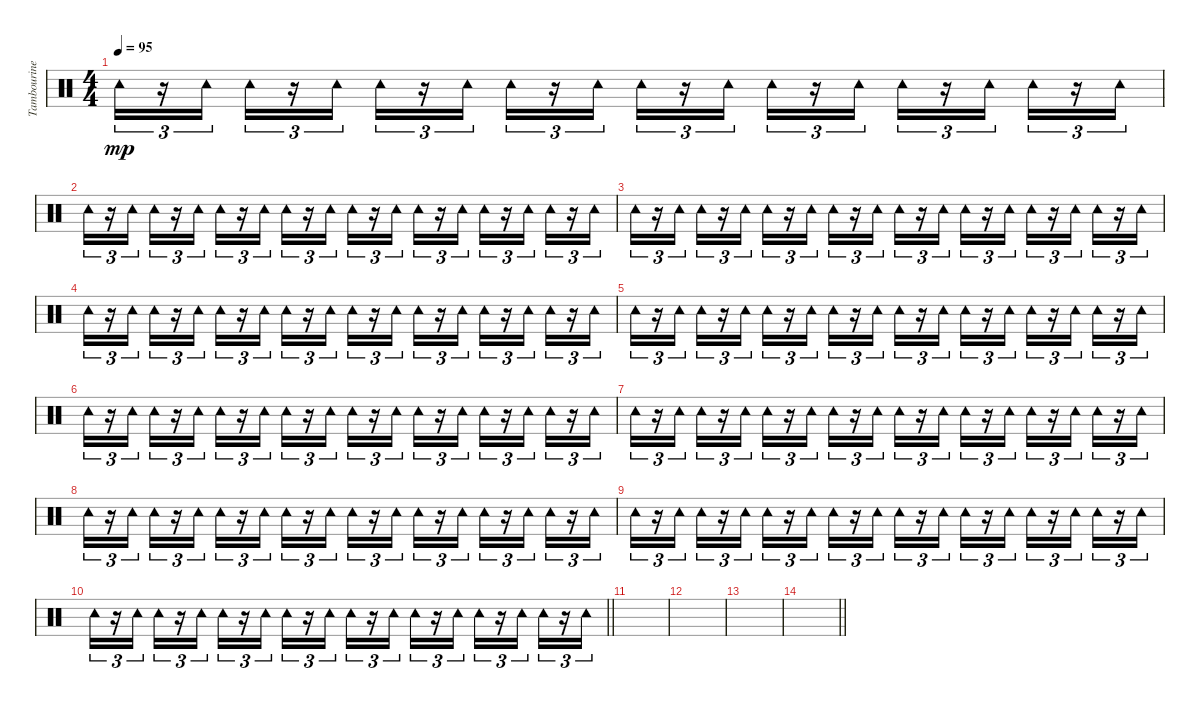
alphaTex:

\track ("Tambourine" "Tambourine") {instrument percussion}
\staff {score}
\articulation defaults
\ts (4 4)
\tempo 95
\clef neutral
\ks c "Tambourine (hit)".16{tu (3 2) dy mp}
r.16{tu (3 2)} "Tambourine (hit)".16{tu (3 2)} "Tambourine (hit)".16{tu (3 2)} r.16{tu (3 2)} "Tambourine (hit)".16{tu (3 2)} "Tambourine (hit)".16{tu (3 2)} r.16{tu (3 2)} "Tambourine (hit)".16{tu (3 2)} "Tambourine (hit)".16{tu (3 2)} r.16{tu (3 2)} "Tambourine (hit)".16{tu (3 2)} "Tambourine (hit)".16{tu (3 2)} r.16{tu (3 2)} "Tambourine (hit)".16{tu (3 2)} "Tambourine (hit)".16{tu (3 2)} r.16{tu (3 2)} "Tambourine (hit)".16{tu (3 2)} "Tambourine (hit)".16{tu (3 2)} r.16{tu (3 2)} "Tambourine (hit)".16{tu (3 2)} "Tambourine (hit)".16{tu (3 2)} r.16{tu (3 2)} "Tambourine (hit)".16{tu (3 2)} |
"Tambourine (hit)".16{tu (3 2)} r.16{tu (3 2)} "Tambourine (hit)".16{tu (3 2)} "Tambourine (hit)".16{tu (3 2)} r.16{tu (3 2)} "Tambourine (hit)".16{tu (3 2)} "Tambourine (hit)".16{tu (3 2)} r.16{tu (3 2)} "Tambourine (hit)".16{tu (3 2)} "Tambourine (hit)".16{tu (3 2)} r.16{tu (3 2)} "Tambourine (hit)".16{tu (3 2)} "Tambourine (hit)".16{tu (3 2)} r.16{tu (3 2)} "Tambourine (hit)".16{tu (3 2)} "Tambourine (hit)".16{tu (3 2)} r.16{tu (3 2)} "Tambourine (hit)".16{tu (3 2)} "Tambourine (hit)".16{tu (3 2)} r.16{tu (3 2)} "Tambourine (hit)".16{tu (3 2)} "Tambourine (hit)".16{tu (3 2)} r.16{tu (3 2)} "Tambourine (hit)".16{tu (3 2)} |
"Tambourine (hit)".16{tu (3 2)} r.16{tu (3 2)} "Tambourine (hit)".16{tu (3 2)} "Tambourine (hit)".16{tu (3 2)} r.16{tu (3 2)} "Tambourine (hit)".16{tu (3 2)} "Tambourine (hit)".16{tu (3 2)} r.16{tu (3 2)} "Tambourine (hit)".16{tu (3 2)} "Tambourine (hit)".16{tu (3 2)} r.16{tu (3 2)} "Tambourine (hit)".16{tu (3 2)} "Tambourine (hit)".16{tu (3 2)} r.16{tu (3 2)} "Tambourine (hit)".16{tu (3 2)} "Tambourine (hit)".16{tu (3 2)} r.16{tu (3 2)} "Tambourine (hit)".16{tu (3 2)} "Tambourine (hit)".16{tu (3 2)} r.16{tu (3 2)} "Tambourine (hit)".16{tu (3 2)} "Tambourine (hit)".16{tu (3 2)} r.16{tu (3 2)} "Tambourine (hit)".16{tu (3 2)} |
"Tambourine (hit)".16{tu (3 2)} r.16{tu (3 2)} "Tambourine (hit)".16{tu (3 2)} "Tambourine (hit)".16{tu (3 2)} r.16{tu (3 2)} "Tambourine (hit)".16{tu (3 2)} "Tambourine (hit)".16{tu (3 2)} r.16{tu (3 2)} "Tambourine (hit)".16{tu (3 2)} "Tambourine (hit)".16{tu (3 2)} r.16{tu (3 2)} "Tambourine (hit)".16{tu (3 2)} "Tambourine (hit)".16{tu (3 2)} r.16{tu (3 2)} "Tambourine (hit)".16{tu (3 2)} "Tambourine (hit)".16{tu (3 2)} r.16{tu (3 2)} "Tambourine (hit)".16{tu (3 2)} "Tambourine (hit)".16{tu (3 2)} r.16{tu (3 2)} "Tambourine (hit)".16{tu (3 2)} "Tambourine (hit)".16{tu (3 2)} r.16{tu (3 2)} "Tambourine (hit)".16{tu (3 2)} |
"Tambourine (hit)".16{tu (3 2)} r.16{tu (3 2)} "Tambourine (hit)".16{tu (3 2)} "Tambourine (hit)".16{tu (3 2)} r.16{tu (3 2)} "Tambourine (hit)".16{tu (3 2)} "Tambourine (hit)".16{tu (3 2)} r.16{tu (3 2)} "Tambourine (hit)".16{tu (3 2)} "Tambourine (hit)".16{tu (3 2)} r.16{tu (3 2)} "Tambourine (hit)".16{tu (3 2)} "Tambourine (hit)".16{tu (3 2)} r.16{tu (3 2)} "Tambourine (hit)".16{tu (3 2)} "Tambourine (hit)".16{tu (3 2)} r.16{tu (3 2)} "Tambourine (hit)".16{tu (3 2)} "Tambourine (hit)".16{tu (3 2)} r.16{tu (3 2)} "Tambourine (hit)".16{tu (3 2)} "Tambourine (hit)".16{tu (3 2)} r.16{tu (3 2)} "Tambourine (hit)".16{tu (3 2)} |
"Tambourine (hit)".16{tu (3 2)} r.16{tu (3 2)} "Tambourine (hit)".16{tu (3 2)} "Tambourine (hit)".16{tu (3 2)} r.16{tu (3 2)} "Tambourine (hit)".16{tu (3 2)} "Tambourine (hit)".16{tu (3 2)} r.16{tu (3 2)} "Tambourine (hit)".16{tu (3 2)} "Tambourine (hit)".16{tu (3 2)} r.16{tu (3 2)} "Tambourine (hit)".16{tu (3 2)} "Tambourine (hit)".16{tu (3 2)} r.16{tu (3 2)} "Tambourine (hit)".16{tu (3 2)} "Tambourine (hit)".16{tu (3 2)} r.16{tu (3 2)} "Tambourine (hit)".16{tu (3 2)} "Tambourine (hit)".16{tu (3 2)} r.16{tu (3 2)} "Tambourine (hit)".16{tu (3 2)} "Tambourine (hit)".16{tu (3 2)} r.16{tu (3 2)} "Tambourine (hit)".16{tu (3 2)} |
"Tambourine (hit)".16{tu (3 2)} r.16{tu (3 2)} "Tambourine (hit)".16{tu (3 2)} "Tambourine (hit)".16{tu (3 2)} r.16{tu (3 2)} "Tambourine (hit)".16{tu (3 2)} "Tambourine (hit)".16{tu (3 2)} r.16{tu (3 2)} "Tambourine (hit)".16{tu (3 2)} "Tambourine (hit)".16{tu (3 2)} r.16{tu (3 2)} "Tambourine (hit)".16{tu (3 2)} "Tambourine (hit)".16{tu (3 2)} r.16{tu (3 2)} "Tambourine (hit)".16{tu (3 2)} "Tambourine (hit)".16{tu (3 2)} r.16{tu (3 2)} "Tambourine (hit)".16{tu (3 2)} "Tambourine (hit)".16{tu (3 2)} r.16{tu (3 2)} "Tambourine (hit)".16{tu (3 2)} "Tambourine (hit)".16{tu (3 2)} r.16{tu (3 2)} "Tambourine (hit)".16{tu (3 2)} |
"Tambourine (hit)".16{tu (3 2)} r.16{tu (3 2)} "Tambourine (hit)".16{tu (3 2)} "Tambourine (hit)".16{tu (3 2)} r.16{tu (3 2)} "Tambourine (hit)".16{tu (3 2)} "Tambourine (hit)".16{tu (3 2)} r.16{tu (3 2)} "Tambourine (hit)".16{tu (3 2)} "Tambourine (hit)".16{tu (3 2)} r.16{tu (3 2)} "Tambourine (hit)".16{tu (3 2)} "Tambourine (hit)".16{tu (3 2)} r.16{tu (3 2)} "Tambourine (hit)".16{tu (3 2)} "Tambourine (hit)".16{tu (3 2)} r.16{tu (3 2)} "Tambourine (hit)".16{tu (3 2)} "Tambourine (hit)".16{tu (3 2)} r.16{tu (3 2)} "Tambourine (hit)".16{tu (3 2)} "Tambourine (hit)".16{tu (3 2)} r.16{tu (3 2)} "Tambourine (hit)".16{tu (3 2)} |
"Tambourine (hit)".16{tu (3 2)} r.16{tu (3 2)} "Tambourine (hit)".16{tu (3 2)} "Tambourine (hit)".16{tu (3 2)} r.16{tu (3 2)} "Tambourine (hit)".16{tu (3 2)} "Tambourine (hit)".16{tu (3 2)} r.16{tu (3 2)} "Tambourine (hit)".16{tu (3 2)} "Tambourine (hit)".16{tu (3 2)} r.16{tu (3 2)} "Tambourine (hit)".16{tu (3 2)} "Tambourine (hit)".16{tu (3 2)} r.16{tu (3 2)} "Tambourine (hit)".16{tu (3 2)} "Tambourine (hit)".16{tu (3 2)} r.16{tu (3 2)} "Tambourine (hit)".16{tu (3 2)} "Tambourine (hit)".16{tu (3 2)} r.16{tu (3 2)} "Tambourine (hit)".16{tu (3 2)} "Tambourine (hit)".16{tu (3 2)} r.16{tu (3 2)} "Tambourine (hit)".16{tu (3 2)} |
\barLineRight lightlight "Tambourine (hit)".16{tu (3 2)}
r.16{tu (3 2)} "Tambourine (hit)".16{tu (3 2)} "Tambourine (hit)".16{tu (3 2)} r.16{tu (3 2)} "Tambourine (hit)".16{tu (3 2)} "Tambourine (hit)".16{tu (3 2)} r.16{tu (3 2)} "Tambourine (hit)".16{tu (3 2)} "Tambourine (hit)".16{tu (3 2)} r.16{tu (3 2)} "Tambourine (hit)".16{tu (3 2)} "Tambourine (hit)".16{tu (3 2)} r.16{tu (3 2)} "Tambourine (hit)".16{tu (3 2)} "Tambourine (hit)".16{tu (3 2)} r.16{tu (3 2)} "Tambourine (hit)".16{tu (3 2)} "Tambourine (hit)".16{tu (3 2)} r.16{tu (3 2)} "Tambourine (hit)".16{tu (3 2)} "Tambourine (hit)".16{tu (3 2)} r.16{tu (3 2)} "Tambourine (hit)".16{tu (3 2)} |
|
|
|
\barLineRight lightlight
